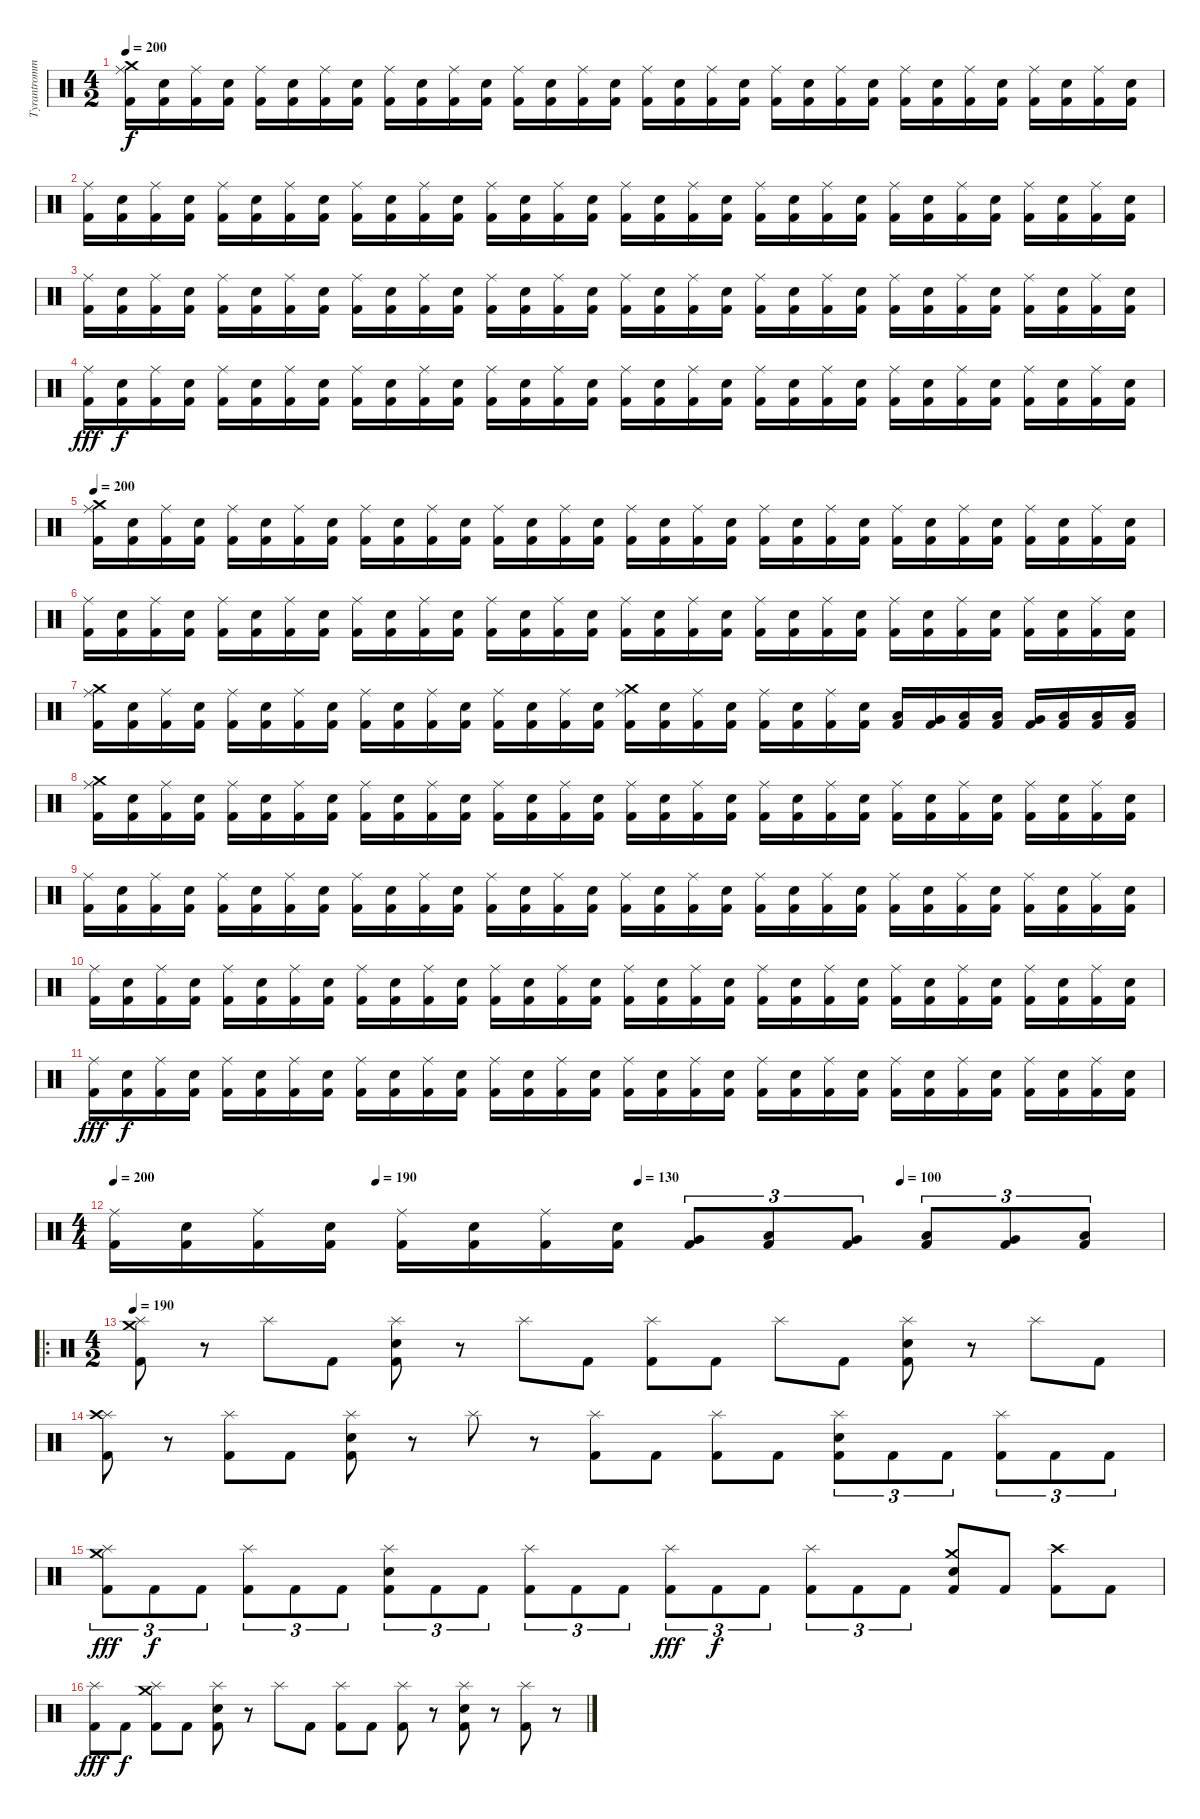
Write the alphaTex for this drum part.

\track ("Tyrantrommerslager" "Tyrantromm") {instrument percussion}
\staff {score}
\articulation defaults
\ts (4 2)
\tempo 200
\clef neutral
\ks c
("Kick (hit) 2" "Crash medium (hit)" "Ride (middle)").16{dy f} ("Kick (hit) 2" "Electric Snare (hit)").16 ("Kick (hit) 2" "Ride (middle)").16 ("Kick (hit) 2" "Electric Snare (hit)").16 ("Kick (hit) 2" "Ride (middle)").16 ("Kick (hit) 2" "Electric Snare (hit)").16 ("Kick (hit) 2" "Ride (middle)").16 ("Kick (hit) 2" "Electric Snare (hit)").16 ("Kick (hit) 2" "Ride (middle)").16 ("Kick (hit) 2" "Electric Snare (hit)").16 ("Kick (hit) 2" "Ride (middle)").16 ("Kick (hit) 2" "Electric Snare (hit)").16 ("Kick (hit) 2" "Ride (middle)").16 ("Kick (hit) 2" "Electric Snare (hit)").16 ("Kick (hit) 2" "Ride (middle)").16 ("Kick (hit) 2" "Electric Snare (hit)").16 ("Kick (hit) 2" "Ride (middle)").16 ("Kick (hit) 2" "Electric Snare (hit)").16 ("Kick (hit) 2" "Ride (middle)").16 ("Kick (hit) 2" "Electric Snare (hit)").16 ("Kick (hit) 2" "Ride (middle)").16 ("Kick (hit) 2" "Electric Snare (hit)").16 ("Kick (hit) 2" "Ride (middle)").16 ("Kick (hit) 2" "Electric Snare (hit)").16 ("Kick (hit) 2" "Ride (middle)").16 ("Kick (hit) 2" "Electric Snare (hit)").16 ("Kick (hit) 2" "Ride (middle)").16 ("Kick (hit) 2" "Electric Snare (hit)").16 ("Kick (hit) 2" "Ride (middle)").16 ("Kick (hit) 2" "Electric Snare (hit)").16 ("Kick (hit) 2" "Ride (middle)").16 ("Kick (hit) 2" "Electric Snare (hit)").16 |
("Kick (hit) 2" "Ride (middle)").16 ("Kick (hit) 2" "Electric Snare (hit)").16 ("Kick (hit) 2" "Ride (middle)").16 ("Kick (hit) 2" "Electric Snare (hit)").16 ("Kick (hit) 2" "Ride (middle)").16 ("Kick (hit) 2" "Electric Snare (hit)").16 ("Kick (hit) 2" "Ride (middle)").16 ("Kick (hit) 2" "Electric Snare (hit)").16 ("Kick (hit) 2" "Ride (middle)").16 ("Kick (hit) 2" "Electric Snare (hit)").16 ("Kick (hit) 2" "Ride (middle)").16 ("Kick (hit) 2" "Electric Snare (hit)").16 ("Kick (hit) 2" "Ride (middle)").16 ("Kick (hit) 2" "Electric Snare (hit)").16 ("Kick (hit) 2" "Ride (middle)").16 ("Kick (hit) 2" "Electric Snare (hit)").16 ("Kick (hit) 2" "Ride (middle)").16 ("Kick (hit) 2" "Electric Snare (hit)").16 ("Kick (hit) 2" "Ride (middle)").16 ("Kick (hit) 2" "Electric Snare (hit)").16 ("Kick (hit) 2" "Ride (middle)").16 ("Kick (hit) 2" "Electric Snare (hit)").16 ("Kick (hit) 2" "Ride (middle)").16 ("Kick (hit) 2" "Electric Snare (hit)").16 ("Kick (hit) 2" "Ride (middle)").16 ("Kick (hit) 2" "Electric Snare (hit)").16 ("Kick (hit) 2" "Ride (middle)").16 ("Kick (hit) 2" "Electric Snare (hit)").16 ("Kick (hit) 2" "Ride (middle)").16 ("Kick (hit) 2" "Electric Snare (hit)").16 ("Kick (hit) 2" "Ride (middle)").16 ("Kick (hit) 2" "Electric Snare (hit)").16 |
("Kick (hit) 2" "Ride (middle)").16 ("Kick (hit) 2" "Electric Snare (hit)").16 ("Kick (hit) 2" "Ride (middle)").16 ("Kick (hit) 2" "Electric Snare (hit)").16 ("Kick (hit) 2" "Ride (middle)").16 ("Kick (hit) 2" "Electric Snare (hit)").16 ("Kick (hit) 2" "Ride (middle)").16 ("Kick (hit) 2" "Electric Snare (hit)").16 ("Kick (hit) 2" "Ride (middle)").16 ("Kick (hit) 2" "Electric Snare (hit)").16 ("Kick (hit) 2" "Ride (middle)").16 ("Kick (hit) 2" "Electric Snare (hit)").16 ("Kick (hit) 2" "Ride (middle)").16 ("Kick (hit) 2" "Electric Snare (hit)").16 ("Kick (hit) 2" "Ride (middle)").16 ("Kick (hit) 2" "Electric Snare (hit)").16 ("Kick (hit) 2" "Ride (middle)").16 ("Kick (hit) 2" "Electric Snare (hit)").16 ("Kick (hit) 2" "Ride (middle)").16 ("Kick (hit) 2" "Electric Snare (hit)").16 ("Kick (hit) 2" "Ride (middle)").16 ("Kick (hit) 2" "Electric Snare (hit)").16 ("Kick (hit) 2" "Ride (middle)").16 ("Kick (hit) 2" "Electric Snare (hit)").16 ("Kick (hit) 2" "Ride (middle)").16 ("Kick (hit) 2" "Electric Snare (hit)").16 ("Kick (hit) 2" "Ride (middle)").16 ("Kick (hit) 2" "Electric Snare (hit)").16 ("Kick (hit) 2" "Ride (middle)").16 ("Kick (hit) 2" "Electric Snare (hit)").16 ("Kick (hit) 2" "Ride (middle)").16 ("Kick (hit) 2" "Electric Snare (hit)").16 |
("Kick (hit) 2" "Ride (middle)").16{dy fff} ("Kick (hit) 2" "Electric Snare (hit)").16{dy f} ("Kick (hit) 2" "Ride (middle)").16 ("Kick (hit) 2" "Electric Snare (hit)").16 ("Kick (hit) 2" "Ride (middle)").16 ("Kick (hit) 2" "Electric Snare (hit)").16 ("Kick (hit) 2" "Ride (middle)").16 ("Kick (hit) 2" "Electric Snare (hit)").16 ("Kick (hit) 2" "Ride (middle)").16 ("Kick (hit) 2" "Electric Snare (hit)").16 ("Kick (hit) 2" "Ride (middle)").16 ("Kick (hit) 2" "Electric Snare (hit)").16 ("Kick (hit) 2" "Ride (middle)").16 ("Kick (hit) 2" "Electric Snare (hit)").16 ("Kick (hit) 2" "Ride (middle)").16 ("Kick (hit) 2" "Electric Snare (hit)").16 ("Kick (hit) 2" "Ride (middle)").16 ("Kick (hit) 2" "Electric Snare (hit)").16 ("Kick (hit) 2" "Ride (middle)").16 ("Kick (hit) 2" "Electric Snare (hit)").16 ("Kick (hit) 2" "Ride (middle)").16 ("Kick (hit) 2" "Electric Snare (hit)").16 ("Kick (hit) 2" "Ride (middle)").16 ("Kick (hit) 2" "Electric Snare (hit)").16 ("Kick (hit) 2" "Ride (middle)").16 ("Kick (hit) 2" "Electric Snare (hit)").16 ("Kick (hit) 2" "Ride (middle)").16 ("Kick (hit) 2" "Electric Snare (hit)").16 ("Kick (hit) 2" "Ride (middle)").16 ("Kick (hit) 2" "Electric Snare (hit)").16 ("Kick (hit) 2" "Ride (middle)").16 ("Kick (hit) 2" "Electric Snare (hit)").16 |
\tempo 200
("Kick (hit) 2" "Crash medium (hit)" "Ride (middle)").16 ("Kick (hit) 2" "Electric Snare (hit)").16 ("Kick (hit) 2" "Ride (middle)").16 ("Kick (hit) 2" "Electric Snare (hit)").16 ("Kick (hit) 2" "Ride (middle)").16 ("Kick (hit) 2" "Electric Snare (hit)").16 ("Kick (hit) 2" "Ride (middle)").16 ("Kick (hit) 2" "Electric Snare (hit)").16 ("Kick (hit) 2" "Ride (middle)").16 ("Kick (hit) 2" "Electric Snare (hit)").16 ("Kick (hit) 2" "Ride (middle)").16 ("Kick (hit) 2" "Electric Snare (hit)").16 ("Kick (hit) 2" "Ride (middle)").16 ("Kick (hit) 2" "Electric Snare (hit)").16 ("Kick (hit) 2" "Ride (middle)").16 ("Kick (hit) 2" "Electric Snare (hit)").16 ("Kick (hit) 2" "Ride (middle)").16 ("Kick (hit) 2" "Electric Snare (hit)").16 ("Kick (hit) 2" "Ride (middle)").16 ("Kick (hit) 2" "Electric Snare (hit)").16 ("Kick (hit) 2" "Ride (middle)").16 ("Kick (hit) 2" "Electric Snare (hit)").16 ("Kick (hit) 2" "Ride (middle)").16 ("Kick (hit) 2" "Electric Snare (hit)").16 ("Kick (hit) 2" "Ride (middle)").16 ("Kick (hit) 2" "Electric Snare (hit)").16 ("Kick (hit) 2" "Ride (middle)").16 ("Kick (hit) 2" "Electric Snare (hit)").16 ("Kick (hit) 2" "Ride (middle)").16 ("Kick (hit) 2" "Electric Snare (hit)").16 ("Kick (hit) 2" "Ride (middle)").16 ("Kick (hit) 2" "Electric Snare (hit)").16 |
("Kick (hit) 2" "Ride (middle)").16 ("Kick (hit) 2" "Electric Snare (hit)").16 ("Kick (hit) 2" "Ride (middle)").16 ("Kick (hit) 2" "Electric Snare (hit)").16 ("Kick (hit) 2" "Ride (middle)").16 ("Kick (hit) 2" "Electric Snare (hit)").16 ("Kick (hit) 2" "Ride (middle)").16 ("Kick (hit) 2" "Electric Snare (hit)").16 ("Kick (hit) 2" "Ride (middle)").16 ("Kick (hit) 2" "Electric Snare (hit)").16 ("Kick (hit) 2" "Ride (middle)").16 ("Kick (hit) 2" "Electric Snare (hit)").16 ("Kick (hit) 2" "Ride (middle)").16 ("Kick (hit) 2" "Electric Snare (hit)").16 ("Kick (hit) 2" "Ride (middle)").16 ("Kick (hit) 2" "Electric Snare (hit)").16 ("Kick (hit) 2" "Ride (middle)").16 ("Kick (hit) 2" "Electric Snare (hit)").16 ("Kick (hit) 2" "Ride (middle)").16 ("Kick (hit) 2" "Electric Snare (hit)").16 ("Kick (hit) 2" "Ride (middle)").16 ("Kick (hit) 2" "Electric Snare (hit)").16 ("Kick (hit) 2" "Ride (middle)").16 ("Kick (hit) 2" "Electric Snare (hit)").16 ("Kick (hit) 2" "Ride (middle)").16 ("Kick (hit) 2" "Electric Snare (hit)").16 ("Kick (hit) 2" "Ride (middle)").16 ("Kick (hit) 2" "Electric Snare (hit)").16 ("Kick (hit) 2" "Ride (middle)").16 ("Kick (hit) 2" "Electric Snare (hit)").16 ("Kick (hit) 2" "Ride (middle)").16 ("Kick (hit) 2" "Electric Snare (hit)").16 |
("Kick (hit) 2" "Crash medium (hit)" "Ride (middle)").16 ("Kick (hit) 2" "Electric Snare (hit)").16 ("Kick (hit) 2" "Ride (middle)").16 ("Kick (hit) 2" "Electric Snare (hit)").16 ("Kick (hit) 2" "Ride (middle)").16 ("Kick (hit) 2" "Electric Snare (hit)").16 ("Kick (hit) 2" "Ride (middle)").16 ("Kick (hit) 2" "Electric Snare (hit)").16 ("Kick (hit) 2" "Ride (middle)").16 ("Kick (hit) 2" "Electric Snare (hit)").16 ("Kick (hit) 2" "Ride (middle)").16 ("Kick (hit) 2" "Electric Snare (hit)").16 ("Kick (hit) 2" "Ride (middle)").16 ("Kick (hit) 2" "Electric Snare (hit)").16 ("Kick (hit) 2" "Ride (middle)").16 ("Kick (hit) 2" "Electric Snare (hit)").16 ("Kick (hit) 2" "Crash medium (hit)" "Ride (middle)").16 ("Kick (hit) 2" "Electric Snare (hit)").16 ("Kick (hit) 2" "Ride (middle)").16 ("Kick (hit) 2" "Electric Snare (hit)").16 ("Kick (hit) 2" "Ride (middle)").16 ("Kick (hit) 2" "Electric Snare (hit)").16 ("Kick (hit) 2" "Ride (middle)").16 ("Kick (hit) 2" "Electric Snare (hit)").16 ("Kick (hit) 2" "Low Tom (hit)").16 ("Kick (hit) 2" "Very Low Tom (hit)").16 ("Kick (hit) 2" "Low Tom (hit)").16 ("Kick (hit) 2" "Low Tom (hit)").16 ("Kick (hit) 2" "Very Low Tom (hit)").16 ("Kick (hit) 2" "Low Floor Tom (hit)").16 ("Kick (hit) 2" "Low Floor Tom (hit)").16 ("Kick (hit) 2" "Low Floor Tom (hit)").16 |
("Kick (hit) 2" "Crash medium (hit)" "Ride (middle)").16 ("Kick (hit) 2" "Electric Snare (hit)").16 ("Kick (hit) 2" "Ride (middle)").16 ("Kick (hit) 2" "Electric Snare (hit)").16 ("Kick (hit) 2" "Ride (middle)").16 ("Kick (hit) 2" "Electric Snare (hit)").16 ("Kick (hit) 2" "Ride (middle)").16 ("Kick (hit) 2" "Electric Snare (hit)").16 ("Kick (hit) 2" "Ride (middle)").16 ("Kick (hit) 2" "Electric Snare (hit)").16 ("Kick (hit) 2" "Ride (middle)").16 ("Kick (hit) 2" "Electric Snare (hit)").16 ("Kick (hit) 2" "Ride (middle)").16 ("Kick (hit) 2" "Electric Snare (hit)").16 ("Kick (hit) 2" "Ride (middle)").16 ("Kick (hit) 2" "Electric Snare (hit)").16 ("Kick (hit) 2" "Ride (middle)").16 ("Kick (hit) 2" "Electric Snare (hit)").16 ("Kick (hit) 2" "Ride (middle)").16 ("Kick (hit) 2" "Electric Snare (hit)").16 ("Kick (hit) 2" "Ride (middle)").16 ("Kick (hit) 2" "Electric Snare (hit)").16 ("Kick (hit) 2" "Ride (middle)").16 ("Kick (hit) 2" "Electric Snare (hit)").16 ("Kick (hit) 2" "Ride (middle)").16 ("Kick (hit) 2" "Electric Snare (hit)").16 ("Kick (hit) 2" "Ride (middle)").16 ("Kick (hit) 2" "Electric Snare (hit)").16 ("Kick (hit) 2" "Ride (middle)").16 ("Kick (hit) 2" "Electric Snare (hit)").16 ("Kick (hit) 2" "Ride (middle)").16 ("Kick (hit) 2" "Electric Snare (hit)").16 |
("Kick (hit) 2" "Ride (middle)").16 ("Kick (hit) 2" "Electric Snare (hit)").16 ("Kick (hit) 2" "Ride (middle)").16 ("Kick (hit) 2" "Electric Snare (hit)").16 ("Kick (hit) 2" "Ride (middle)").16 ("Kick (hit) 2" "Electric Snare (hit)").16 ("Kick (hit) 2" "Ride (middle)").16 ("Kick (hit) 2" "Electric Snare (hit)").16 ("Kick (hit) 2" "Ride (middle)").16 ("Kick (hit) 2" "Electric Snare (hit)").16 ("Kick (hit) 2" "Ride (middle)").16 ("Kick (hit) 2" "Electric Snare (hit)").16 ("Kick (hit) 2" "Ride (middle)").16 ("Kick (hit) 2" "Electric Snare (hit)").16 ("Kick (hit) 2" "Ride (middle)").16 ("Kick (hit) 2" "Electric Snare (hit)").16 ("Kick (hit) 2" "Ride (middle)").16 ("Kick (hit) 2" "Electric Snare (hit)").16 ("Kick (hit) 2" "Ride (middle)").16 ("Kick (hit) 2" "Electric Snare (hit)").16 ("Kick (hit) 2" "Ride (middle)").16 ("Kick (hit) 2" "Electric Snare (hit)").16 ("Kick (hit) 2" "Ride (middle)").16 ("Kick (hit) 2" "Electric Snare (hit)").16 ("Kick (hit) 2" "Ride (middle)").16 ("Kick (hit) 2" "Electric Snare (hit)").16 ("Kick (hit) 2" "Ride (middle)").16 ("Kick (hit) 2" "Electric Snare (hit)").16 ("Kick (hit) 2" "Ride (middle)").16 ("Kick (hit) 2" "Electric Snare (hit)").16 ("Kick (hit) 2" "Ride (middle)").16 ("Kick (hit) 2" "Electric Snare (hit)").16 |
("Kick (hit) 2" "Ride (middle)").16 ("Kick (hit) 2" "Electric Snare (hit)").16 ("Kick (hit) 2" "Ride (middle)").16 ("Kick (hit) 2" "Electric Snare (hit)").16 ("Kick (hit) 2" "Ride (middle)").16 ("Kick (hit) 2" "Electric Snare (hit)").16 ("Kick (hit) 2" "Ride (middle)").16 ("Kick (hit) 2" "Electric Snare (hit)").16 ("Kick (hit) 2" "Ride (middle)").16 ("Kick (hit) 2" "Electric Snare (hit)").16 ("Kick (hit) 2" "Ride (middle)").16 ("Kick (hit) 2" "Electric Snare (hit)").16 ("Kick (hit) 2" "Ride (middle)").16 ("Kick (hit) 2" "Electric Snare (hit)").16 ("Kick (hit) 2" "Ride (middle)").16 ("Kick (hit) 2" "Electric Snare (hit)").16 ("Kick (hit) 2" "Ride (middle)").16 ("Kick (hit) 2" "Electric Snare (hit)").16 ("Kick (hit) 2" "Ride (middle)").16 ("Kick (hit) 2" "Electric Snare (hit)").16 ("Kick (hit) 2" "Ride (middle)").16 ("Kick (hit) 2" "Electric Snare (hit)").16 ("Kick (hit) 2" "Ride (middle)").16 ("Kick (hit) 2" "Electric Snare (hit)").16 ("Kick (hit) 2" "Ride (middle)").16 ("Kick (hit) 2" "Electric Snare (hit)").16 ("Kick (hit) 2" "Ride (middle)").16 ("Kick (hit) 2" "Electric Snare (hit)").16 ("Kick (hit) 2" "Ride (middle)").16 ("Kick (hit) 2" "Electric Snare (hit)").16 ("Kick (hit) 2" "Ride (middle)").16 ("Kick (hit) 2" "Electric Snare (hit)").16 |
("Kick (hit) 2" "Ride (middle)").16{dy fff} ("Kick (hit) 2" "Electric Snare (hit)").16{dy f} ("Kick (hit) 2" "Ride (middle)").16 ("Kick (hit) 2" "Electric Snare (hit)").16 ("Kick (hit) 2" "Ride (middle)").16 ("Kick (hit) 2" "Electric Snare (hit)").16 ("Kick (hit) 2" "Ride (middle)").16 ("Kick (hit) 2" "Electric Snare (hit)").16 ("Kick (hit) 2" "Ride (middle)").16 ("Kick (hit) 2" "Electric Snare (hit)").16 ("Kick (hit) 2" "Ride (middle)").16 ("Kick (hit) 2" "Electric Snare (hit)").16 ("Kick (hit) 2" "Ride (middle)").16 ("Kick (hit) 2" "Electric Snare (hit)").16 ("Kick (hit) 2" "Ride (middle)").16 ("Kick (hit) 2" "Electric Snare (hit)").16 ("Kick (hit) 2" "Ride (middle)").16 ("Kick (hit) 2" "Electric Snare (hit)").16 ("Kick (hit) 2" "Ride (middle)").16 ("Kick (hit) 2" "Electric Snare (hit)").16 ("Kick (hit) 2" "Ride (middle)").16 ("Kick (hit) 2" "Electric Snare (hit)").16 ("Kick (hit) 2" "Ride (middle)").16 ("Kick (hit) 2" "Electric Snare (hit)").16 ("Kick (hit) 2" "Ride (middle)").16 ("Kick (hit) 2" "Electric Snare (hit)").16 ("Kick (hit) 2" "Ride (middle)").16 ("Kick (hit) 2" "Electric Snare (hit)").16 ("Kick (hit) 2" "Ride (middle)").16 ("Kick (hit) 2" "Electric Snare (hit)").16 ("Kick (hit) 2" "Ride (middle)").16 ("Kick (hit) 2" "Electric Snare (hit)").16 |
\ts (4 4)
\tempo 200
\tempo (190 0.25)
\tempo (130 0.5)
\tempo (100 0.75)
("Kick (hit) 2" "Ride (middle)").16 ("Kick (hit) 2" "Electric Snare (hit)").16 ("Kick (hit) 2" "Ride (middle)").16 ("Kick (hit) 2" "Electric Snare (hit)").16 ("Kick (hit) 2" "Ride (middle)").16 ("Kick (hit) 2" "Electric Snare (hit)").16 ("Kick (hit) 2" "Ride (middle)").16 ("Kick (hit) 2" "Electric Snare (hit)").16 ("Kick (hit) 2" "Very Low Tom (hit)").8{tu (3 2)} ("Kick (hit) 2" "Low Tom (hit)").8{tu (3 2)} ("Kick (hit) 2" "Very Low Tom (hit)").8{tu (3 2)} ("Kick (hit) 2" "Low Floor Tom (hit)").8{tu (3 2)} ("Kick (hit) 2" "Very Low Tom (hit)").8{tu (3 2)} ("Kick (hit) 2" "Low Tom (hit)").8{tu (3 2)} |
\ro
\ts (4 2)
\tempo 190
("Kick (hit) 2" "Splash (hit)" "Crash medium (hit)").8 r.8 "Splash (hit)".8 "Kick (hit) 2".8 ("Kick (hit) 2" "Electric Snare (hit)" "Splash (hit)").8 r.8 "Splash (hit)".8 "Kick (hit) 2".8 ("Kick (hit) 2" "Splash (hit)").8 "Kick (hit) 2".8 "Splash (hit)".8 "Kick (hit) 2".8 ("Kick (hit) 2" "Electric Snare (hit)" "Splash (hit)").8 r.8 "Splash (hit)".8 "Kick (hit) 2".8 |
("Kick (hit) 2" "Splash (hit)" "Crash high (hit)").8 r.8 ("Kick (hit) 2" "Splash (hit)").8 "Kick (hit) 2".8 ("Kick (hit) 2" "Electric Snare (hit)" "Splash (hit)").8 r.8 "Splash (hit)".8 r.8 ("Kick (hit) 2" "Splash (hit)").8 "Kick (hit) 2".8 ("Kick (hit) 2" "Splash (hit)").8 "Kick (hit) 2".8 ("Kick (hit) 2" "Electric Snare (hit)" "Splash (hit)").8{tu (3 2)} "Kick (hit) 2".8{tu (3 2)} "Kick (hit) 2".8{tu (3 2)} ("Kick (hit) 2" "Splash (hit)").8{tu (3 2)} "Kick (hit) 2".8{tu (3 2)} "Kick (hit) 2".8{tu (3 2)} |
("Kick (hit) 2" "Splash (hit)" "Crash medium (hit)").8{tu (3 2) dy fff} "Kick (hit) 2".8{tu (3 2) dy f} "Kick (hit) 2".8{tu (3 2)} ("Kick (hit) 2" "Splash (hit)").8{tu (3 2)} "Kick (hit) 2".8{tu (3 2)} "Kick (hit) 2".8{tu (3 2)} ("Kick (hit) 2" "Electric Snare (hit)" "Splash (hit)").8{tu (3 2)} "Kick (hit) 2".8{tu (3 2)} "Kick (hit) 2".8{tu (3 2)} ("Kick (hit) 2" "Splash (hit)").8{tu (3 2)} "Kick (hit) 2".8{tu (3 2)} "Kick (hit) 2".8{tu (3 2)} ("Kick (hit) 2" "Splash (hit)").8{tu (3 2) dy fff} "Kick (hit) 2".8{tu (3 2) dy f} "Kick (hit) 2".8{tu (3 2)} ("Kick (hit) 2" "Splash (hit)").8{tu (3 2)} "Kick (hit) 2".8{tu (3 2)} "Kick (hit) 2".8{tu (3 2)} ("Kick (hit) 2" "Electric Snare (hit)" "Crash medium (hit)").8 "Kick (hit) 2".8 ("Kick (hit) 2" "Crash high (hit)").8 "Kick (hit) 2".8 |
("Kick (hit) 2" "Splash (hit)").8{dy fff} "Kick (hit) 2".8{dy f} ("Kick (hit) 2" "Splash (hit)" "Crash medium (hit)").8 "Kick (hit) 2".8 ("Kick (hit) 2" "Electric Snare (hit)" "Splash (hit)").8 r.8 "Splash (hit)".8 "Kick (hit) 2".8 ("Kick (hit) 2" "Splash (hit)").8 "Kick (hit) 2".8 ("Kick (hit) 2" "Splash (hit)").8 r.8 ("Kick (hit) 2" "Electric Snare (hit)" "Splash (hit)").8 r.8 ("Kick (hit) 2" "Splash (hit)").8 r.8
